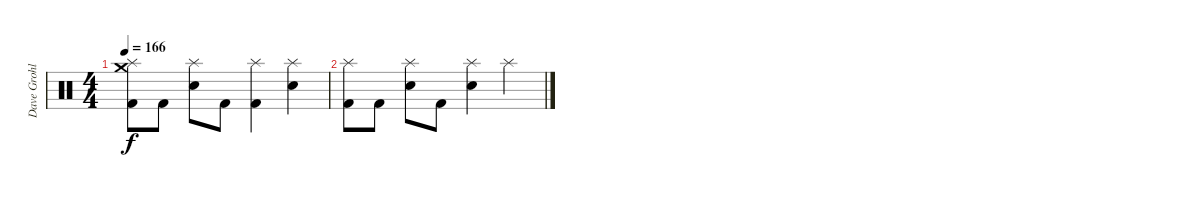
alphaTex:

\track ("Dave Grohl" "Dave Grohl") {instrument percussion}
\staff {score}
\articulation defaults
\ts (4 4)
\tempo 166
\clef neutral
\ks c
("Splash (hit)" "Crash medium (hit)" "Kick (hit) 2").8{dy f} "Kick (hit) 2".8 ("Splash (hit)" "Snare (hit) 2").8 "Kick (hit) 2".8 ("Splash (hit)" "Kick (hit) 2").4 ("Splash (hit)" "Snare (hit) 2").4 |
("Splash (hit)" "Kick (hit) 2").8 "Kick (hit) 2".8 ("Splash (hit)" "Snare (hit) 2").8 "Kick (hit) 2".8 ("Splash (hit)" "Snare (hit) 2").4 "Splash (hit)".4
